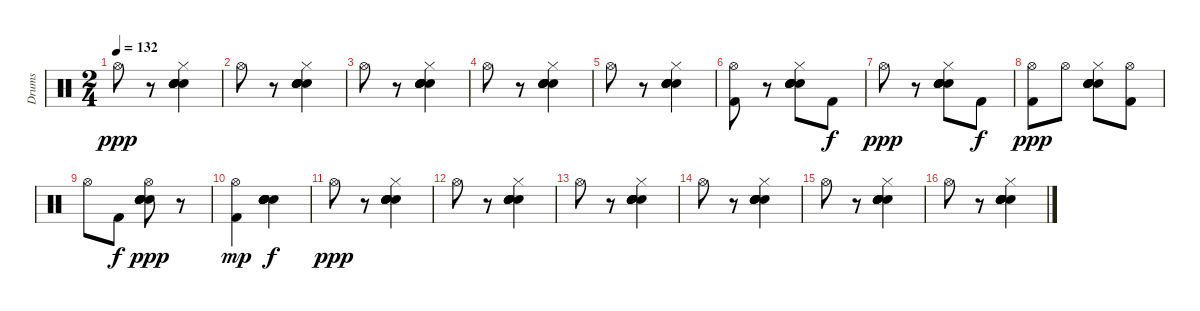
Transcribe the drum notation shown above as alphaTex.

\track ("Drums" "Drums") {instrument percussion}
\staff {score}
\articulation defaults
\ts (2 4)
\tempo 132
\clef neutral
\ks c "Hi-Hat (open)".8{dy ppp}
r.8 ("Hand Clap (hit)" "Hand Clap (hit)" "Hand Clap (hit)" "Hand Clap (hit)" "Hand Clap (hit)" "Hi-Hat (closed)").4{bd 60} |
"Hi-Hat (open)".8 r.8 ("Hand Clap (hit)" "Hand Clap (hit)" "Hand Clap (hit)" "Hand Clap (hit)" "Hand Clap (hit)" "Hi-Hat (closed)").4{bd 60} |
"Hi-Hat (open)".8 r.8 ("Hand Clap (hit)" "Hand Clap (hit)" "Hand Clap (hit)" "Hand Clap (hit)" "Hand Clap (hit)" "Hi-Hat (closed)").4{bd 60} |
"Hi-Hat (open)".8 r.8 ("Hand Clap (hit)" "Hand Clap (hit)" "Hand Clap (hit)" "Hand Clap (hit)" "Hand Clap (hit)" "Hi-Hat (closed)").4{bd 60} |
"Hi-Hat (open)".8 r.8 ("Hand Clap (hit)" "Hand Clap (hit)" "Hand Clap (hit)" "Hand Clap (hit)" "Hand Clap (hit)" "Hi-Hat (closed)").4{bd 60} |
("Kick (hit) 2" "Hi-Hat (open)").8 r.8 ("Hand Clap (hit)" "Hand Clap (hit)" "Hand Clap (hit)" "Hand Clap (hit)" "Hand Clap (hit)" "Hi-Hat (closed)").8{bd 60} "Kick (hit) 2".8{dy f} |
"Hi-Hat (open)".8{dy ppp} r.8 ("Hand Clap (hit)" "Hand Clap (hit)" "Hand Clap (hit)" "Hand Clap (hit)" "Hand Clap (hit)" "Hi-Hat (closed)").8{bd 60} "Kick (hit) 2".8{dy f} |
("Kick (hit) 2" "Hi-Hat (open)").8{dy ppp} "Hi-Hat (open)".8 ("Hand Clap (hit)" "Hand Clap (hit)" "Hand Clap (hit)" "Hand Clap (hit)" "Hand Clap (hit)" "Hi-Hat (closed)").8{bd 60} ("Kick (hit) 2" "Hi-Hat (open)").8 |
"Hi-Hat (open)".8 "Kick (hit) 2".8{dy f} ("Hand Clap (hit)" "Hand Clap (hit)" "Hand Clap (hit)" "Hand Clap (hit)" "Hand Clap (hit)" "Hi-Hat (open)").8{bd 60 dy ppp} r.8 |
("Kick (hit) 2" "Hi-Hat (open)").4{dy mp} ("Hand Clap (hit)" "Hand Clap (hit)" "Hand Clap (hit)" "Hand Clap (hit)" "Hand Clap (hit)" "Hand Clap (hit)").4{bd 60 dy f} |
"Hi-Hat (open)".8{dy ppp} r.8 ("Hand Clap (hit)" "Hand Clap (hit)" "Hand Clap (hit)" "Hand Clap (hit)" "Hand Clap (hit)" "Hi-Hat (closed)").4{bd 60} |
"Hi-Hat (open)".8 r.8 ("Hand Clap (hit)" "Hand Clap (hit)" "Hand Clap (hit)" "Hand Clap (hit)" "Hand Clap (hit)" "Hi-Hat (closed)").4{bd 60} |
"Hi-Hat (open)".8 r.8 ("Hand Clap (hit)" "Hand Clap (hit)" "Hand Clap (hit)" "Hand Clap (hit)" "Hand Clap (hit)" "Hi-Hat (closed)").4{bd 60} |
"Hi-Hat (open)".8 r.8 ("Hand Clap (hit)" "Hand Clap (hit)" "Hand Clap (hit)" "Hand Clap (hit)" "Hand Clap (hit)" "Hi-Hat (closed)").4{bd 60} |
"Hi-Hat (open)".8 r.8 ("Hand Clap (hit)" "Hand Clap (hit)" "Hand Clap (hit)" "Hand Clap (hit)" "Hand Clap (hit)" "Hi-Hat (closed)").4{bd 60} |
"Hi-Hat (open)".8 r.8 ("Hand Clap (hit)" "Hand Clap (hit)" "Hand Clap (hit)" "Hand Clap (hit)" "Hand Clap (hit)" "Hi-Hat (closed)").4{bd 60}
